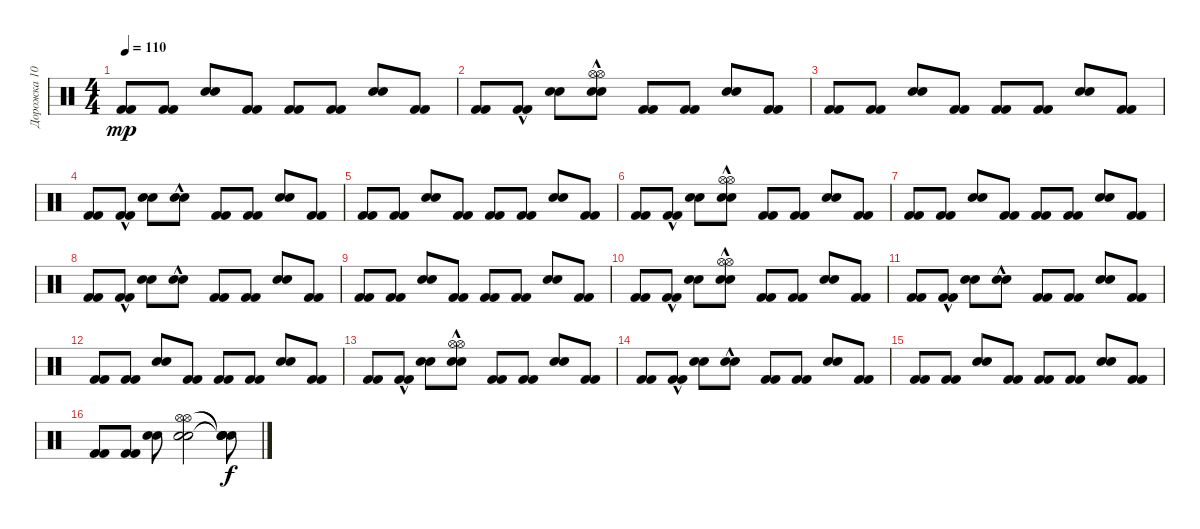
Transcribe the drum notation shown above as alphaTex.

\track ("Дорожка 10" "Дорожка 10") {instrument percussion}
\staff {score}
\articulation defaults
\ts (4 4)
\tempo 110
\clef neutral
\ks c
("Kick (hit) 2" "Kick (hit) 2").8{dy mp} ("Kick (hit) 2" "Kick (hit) 2").8 ("Snare (hit) 2" "Snare (hit) 2").8 ("Kick (hit) 2" "Kick (hit) 2").8 ("Kick (hit) 2" "Kick (hit) 2").8 ("Kick (hit) 2" "Kick (hit) 2").8 ("Snare (hit) 2" "Snare (hit) 2").8 ("Kick (hit) 2" "Kick (hit) 2").8 |
("Kick (hit) 2" "Kick (hit) 2").8 ("Kick (hit) 2"{hac} "Kick (hit) 2"{hac}).8 ("Snare (hit) 2" "Snare (hit) 2").8 ("Snare (hit) 2"{hac} "Hi-Hat (open)" "Snare (hit) 2"{hac} "Hi-Hat (open)").8 ("Kick (hit) 2" "Kick (hit) 2").8 ("Kick (hit) 2" "Kick (hit) 2").8 ("Snare (hit) 2" "Snare (hit) 2").8 ("Kick (hit) 2" "Kick (hit) 2").8 |
("Kick (hit) 2" "Kick (hit) 2").8 ("Kick (hit) 2" "Kick (hit) 2").8 ("Snare (hit) 2" "Snare (hit) 2").8 ("Kick (hit) 2" "Kick (hit) 2").8 ("Kick (hit) 2" "Kick (hit) 2").8 ("Kick (hit) 2" "Kick (hit) 2").8 ("Snare (hit) 2" "Snare (hit) 2").8 ("Kick (hit) 2" "Kick (hit) 2").8 |
("Kick (hit) 2" "Kick (hit) 2").8 ("Kick (hit) 2"{hac} "Kick (hit) 2"{hac}).8 ("Snare (hit) 2" "Snare (hit) 2").8 ("Snare (hit) 2"{hac} "Snare (hit) 2"{hac}).8 ("Kick (hit) 2" "Kick (hit) 2").8 ("Kick (hit) 2" "Kick (hit) 2").8 ("Snare (hit) 2" "Snare (hit) 2").8 ("Kick (hit) 2" "Kick (hit) 2").8 |
("Kick (hit) 2" "Kick (hit) 2").8 ("Kick (hit) 2" "Kick (hit) 2").8 ("Snare (hit) 2" "Snare (hit) 2").8 ("Kick (hit) 2" "Kick (hit) 2").8 ("Kick (hit) 2" "Kick (hit) 2").8 ("Kick (hit) 2" "Kick (hit) 2").8 ("Snare (hit) 2" "Snare (hit) 2").8 ("Kick (hit) 2" "Kick (hit) 2").8 |
("Kick (hit) 2" "Kick (hit) 2").8 ("Kick (hit) 2"{hac} "Kick (hit) 2"{hac}).8 ("Snare (hit) 2" "Snare (hit) 2").8 ("Snare (hit) 2"{hac} "Hi-Hat (open)" "Snare (hit) 2"{hac} "Hi-Hat (open)").8 ("Kick (hit) 2" "Kick (hit) 2").8 ("Kick (hit) 2" "Kick (hit) 2").8 ("Snare (hit) 2" "Snare (hit) 2").8 ("Kick (hit) 2" "Kick (hit) 2").8 |
("Kick (hit) 2" "Kick (hit) 2").8 ("Kick (hit) 2" "Kick (hit) 2").8 ("Snare (hit) 2" "Snare (hit) 2").8 ("Kick (hit) 2" "Kick (hit) 2").8 ("Kick (hit) 2" "Kick (hit) 2").8 ("Kick (hit) 2" "Kick (hit) 2").8 ("Snare (hit) 2" "Snare (hit) 2").8 ("Kick (hit) 2" "Kick (hit) 2").8 |
("Kick (hit) 2" "Kick (hit) 2").8 ("Kick (hit) 2"{hac} "Kick (hit) 2"{hac}).8 ("Snare (hit) 2" "Snare (hit) 2").8 ("Snare (hit) 2"{hac} "Snare (hit) 2"{hac}).8 ("Kick (hit) 2" "Kick (hit) 2").8 ("Kick (hit) 2" "Kick (hit) 2").8 ("Snare (hit) 2" "Snare (hit) 2").8 ("Kick (hit) 2" "Kick (hit) 2").8 |
("Kick (hit) 2" "Kick (hit) 2").8 ("Kick (hit) 2" "Kick (hit) 2").8 ("Snare (hit) 2" "Snare (hit) 2").8 ("Kick (hit) 2" "Kick (hit) 2").8 ("Kick (hit) 2" "Kick (hit) 2").8 ("Kick (hit) 2" "Kick (hit) 2").8 ("Snare (hit) 2" "Snare (hit) 2").8 ("Kick (hit) 2" "Kick (hit) 2").8 |
("Kick (hit) 2" "Kick (hit) 2").8 ("Kick (hit) 2"{hac} "Kick (hit) 2"{hac}).8 ("Snare (hit) 2" "Snare (hit) 2").8 ("Snare (hit) 2"{hac} "Hi-Hat (open)" "Snare (hit) 2"{hac} "Hi-Hat (open)").8 ("Kick (hit) 2" "Kick (hit) 2").8 ("Kick (hit) 2" "Kick (hit) 2").8 ("Snare (hit) 2" "Snare (hit) 2").8 ("Kick (hit) 2" "Kick (hit) 2").8 |
("Kick (hit) 2" "Kick (hit) 2").8 ("Kick (hit) 2"{hac} "Kick (hit) 2"{hac}).8 ("Snare (hit) 2" "Snare (hit) 2").8 ("Snare (hit) 2"{hac} "Snare (hit) 2"{hac}).8 ("Kick (hit) 2" "Kick (hit) 2").8 ("Kick (hit) 2" "Kick (hit) 2").8 ("Snare (hit) 2" "Snare (hit) 2").8 ("Kick (hit) 2" "Kick (hit) 2").8 |
("Kick (hit) 2" "Kick (hit) 2").8 ("Kick (hit) 2" "Kick (hit) 2").8 ("Snare (hit) 2" "Snare (hit) 2").8 ("Kick (hit) 2" "Kick (hit) 2").8 ("Kick (hit) 2" "Kick (hit) 2").8 ("Kick (hit) 2" "Kick (hit) 2").8 ("Snare (hit) 2" "Snare (hit) 2").8 ("Kick (hit) 2" "Kick (hit) 2").8 |
("Kick (hit) 2" "Kick (hit) 2").8 ("Kick (hit) 2"{hac} "Kick (hit) 2"{hac}).8 ("Snare (hit) 2" "Snare (hit) 2").8 ("Snare (hit) 2"{hac} "Hi-Hat (open)" "Snare (hit) 2"{hac} "Hi-Hat (open)").8 ("Kick (hit) 2" "Kick (hit) 2").8 ("Kick (hit) 2" "Kick (hit) 2").8 ("Snare (hit) 2" "Snare (hit) 2").8 ("Kick (hit) 2" "Kick (hit) 2").8 |
("Kick (hit) 2" "Kick (hit) 2").8 ("Kick (hit) 2"{hac} "Kick (hit) 2"{hac}).8 ("Snare (hit) 2" "Snare (hit) 2").8 ("Snare (hit) 2"{hac} "Snare (hit) 2"{hac}).8 ("Kick (hit) 2" "Kick (hit) 2").8 ("Kick (hit) 2" "Kick (hit) 2").8 ("Snare (hit) 2" "Snare (hit) 2").8 ("Kick (hit) 2" "Kick (hit) 2").8 |
("Kick (hit) 2" "Kick (hit) 2").8 ("Kick (hit) 2" "Kick (hit) 2").8 ("Snare (hit) 2" "Snare (hit) 2").8 ("Kick (hit) 2" "Kick (hit) 2").8 ("Kick (hit) 2" "Kick (hit) 2").8 ("Kick (hit) 2" "Kick (hit) 2").8 ("Snare (hit) 2" "Snare (hit) 2").8 ("Kick (hit) 2" "Kick (hit) 2").8 |
("Kick (hit) 2" "Kick (hit) 2").8 ("Kick (hit) 2" "Kick (hit) 2").8 ("Snare (hit) 2" "Snare (hit) 2").8 ("Snare (hit) 2" "Hi-Hat (open)" "Snare (hit) 2" "Hi-Hat (open)").2 ("Snare (hit)"{t} "Snare (hit)"{t} "Snare (hit)"{t} "Snare (hit)"{t}).8{dy f}
